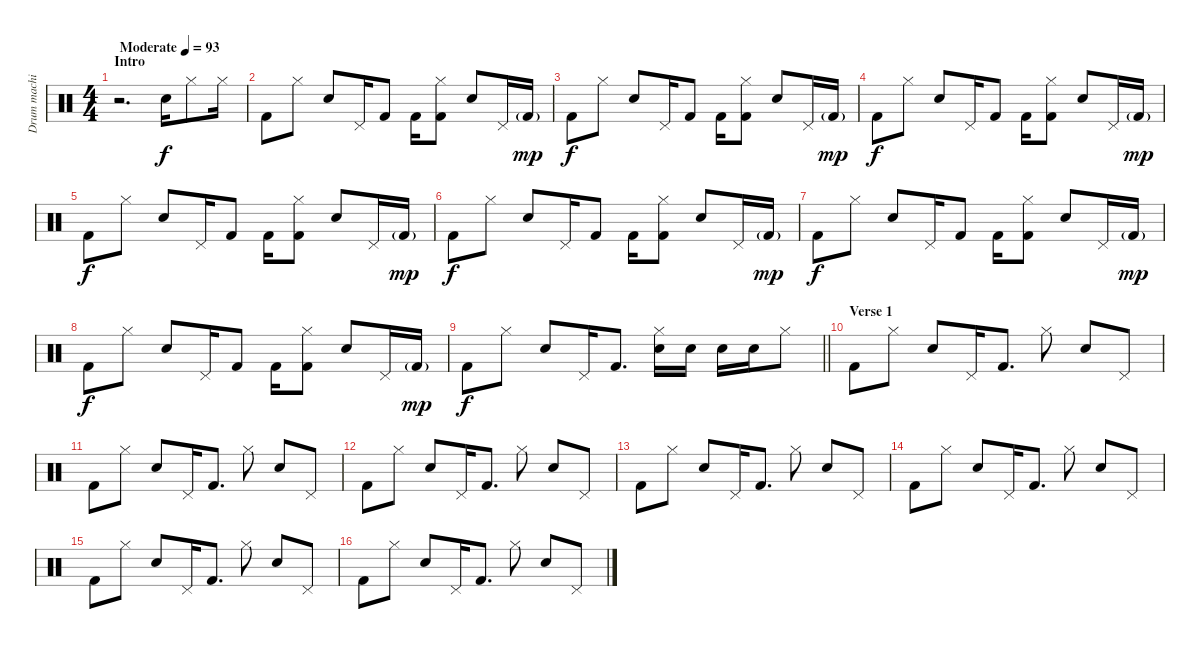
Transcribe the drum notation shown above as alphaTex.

\track ("Drum machine" "Drum machi") {instrument percussion}
\staff {score}
\articulation defaults
\ts (4 4)
\section ("" "Intro")
\tempo (93 "Moderate")
\clef neutral
\ks c
r.2{d dy f} "Snare (hit) 2".16 "Hi-Hat (closed)".8 "Hi-Hat (closed)".16 |
"Kick (hit) 2".8 "Hi-Hat (closed)".8 "Snare (hit) 2".8 "Pedal Hi-Hat (hit)".16 "Kick (hit) 2".8 "Kick (hit) 2".16 ("Hi-Hat (closed)" "Kick (hit) 2").8 "Snare (hit) 2".8 "Pedal Hi-Hat (hit)".16 "Kick (hit) 2"{g}.16{dy mp} |
"Kick (hit) 2".8{dy f} "Hi-Hat (closed)".8 "Snare (hit) 2".8 "Pedal Hi-Hat (hit)".16 "Kick (hit) 2".8 "Kick (hit) 2".16 ("Hi-Hat (closed)" "Kick (hit) 2").8 "Snare (hit) 2".8 "Pedal Hi-Hat (hit)".16 "Kick (hit) 2"{g}.16{dy mp} |
"Kick (hit) 2".8{dy f} "Hi-Hat (closed)".8 "Snare (hit) 2".8 "Pedal Hi-Hat (hit)".16 "Kick (hit) 2".8 "Kick (hit) 2".16 ("Hi-Hat (closed)" "Kick (hit) 2").8 "Snare (hit) 2".8 "Pedal Hi-Hat (hit)".16 "Kick (hit) 2"{g}.16{dy mp} |
"Kick (hit) 2".8{dy f} "Hi-Hat (closed)".8 "Snare (hit) 2".8 "Pedal Hi-Hat (hit)".16 "Kick (hit) 2".8 "Kick (hit) 2".16 ("Hi-Hat (closed)" "Kick (hit) 2").8 "Snare (hit) 2".8 "Pedal Hi-Hat (hit)".16 "Kick (hit) 2"{g}.16{dy mp} |
"Kick (hit) 2".8{dy f} "Hi-Hat (closed)".8 "Snare (hit) 2".8 "Pedal Hi-Hat (hit)".16 "Kick (hit) 2".8 "Kick (hit) 2".16 ("Hi-Hat (closed)" "Kick (hit) 2").8 "Snare (hit) 2".8 "Pedal Hi-Hat (hit)".16 "Kick (hit) 2"{g}.16{dy mp} |
"Kick (hit) 2".8{dy f} "Hi-Hat (closed)".8 "Snare (hit) 2".8 "Pedal Hi-Hat (hit)".16 "Kick (hit) 2".8 "Kick (hit) 2".16 ("Hi-Hat (closed)" "Kick (hit) 2").8 "Snare (hit) 2".8 "Pedal Hi-Hat (hit)".16 "Kick (hit) 2"{g}.16{dy mp} |
"Kick (hit) 2".8{dy f} "Hi-Hat (closed)".8 "Snare (hit) 2".8 "Pedal Hi-Hat (hit)".16 "Kick (hit) 2".8 "Kick (hit) 2".16 ("Hi-Hat (closed)" "Kick (hit) 2").8 "Snare (hit) 2".8 "Pedal Hi-Hat (hit)".16 "Kick (hit) 2"{g}.16{dy mp} |
\barLineRight lightlight "Kick (hit) 2".8{dy f} "Hi-Hat (closed)".8 "Snare (hit) 2".8 "Pedal Hi-Hat (hit)".16 "Kick (hit) 2".8{d}
("Hi-Hat (closed)" "Snare (hit) 2").16 "Snare (hit) 2".16 "Snare (hit) 2".16 "Snare (hit) 2".16 "Hi-Hat (closed)".8 |
\section ("" "Verse 1")
"Kick (hit) 2".8 "Hi-Hat (closed)".8 "Snare (hit) 2".8 "Pedal Hi-Hat (hit)".16 "Kick (hit) 2".8{d} "Hi-Hat (closed)".8 "Snare (hit) 2".8 "Pedal Hi-Hat (hit)".8 |
"Kick (hit) 2".8 "Hi-Hat (closed)".8 "Snare (hit) 2".8 "Pedal Hi-Hat (hit)".16 "Kick (hit) 2".8{d} "Hi-Hat (closed)".8 "Snare (hit) 2".8 "Pedal Hi-Hat (hit)".8 |
"Kick (hit) 2".8 "Hi-Hat (closed)".8 "Snare (hit) 2".8 "Pedal Hi-Hat (hit)".16 "Kick (hit) 2".8{d} "Hi-Hat (closed)".8 "Snare (hit) 2".8 "Pedal Hi-Hat (hit)".8 |
"Kick (hit) 2".8 "Hi-Hat (closed)".8 "Snare (hit) 2".8 "Pedal Hi-Hat (hit)".16 "Kick (hit) 2".8{d} "Hi-Hat (closed)".8 "Snare (hit) 2".8 "Pedal Hi-Hat (hit)".8 |
"Kick (hit) 2".8 "Hi-Hat (closed)".8 "Snare (hit) 2".8 "Pedal Hi-Hat (hit)".16 "Kick (hit) 2".8{d} "Hi-Hat (closed)".8 "Snare (hit) 2".8 "Pedal Hi-Hat (hit)".8 |
"Kick (hit) 2".8 "Hi-Hat (closed)".8 "Snare (hit) 2".8 "Pedal Hi-Hat (hit)".16 "Kick (hit) 2".8{d} "Hi-Hat (closed)".8 "Snare (hit) 2".8 "Pedal Hi-Hat (hit)".8 |
"Kick (hit) 2".8 "Hi-Hat (closed)".8 "Snare (hit) 2".8 "Pedal Hi-Hat (hit)".16 "Kick (hit) 2".8{d} "Hi-Hat (closed)".8 "Snare (hit) 2".8 "Pedal Hi-Hat (hit)".8
